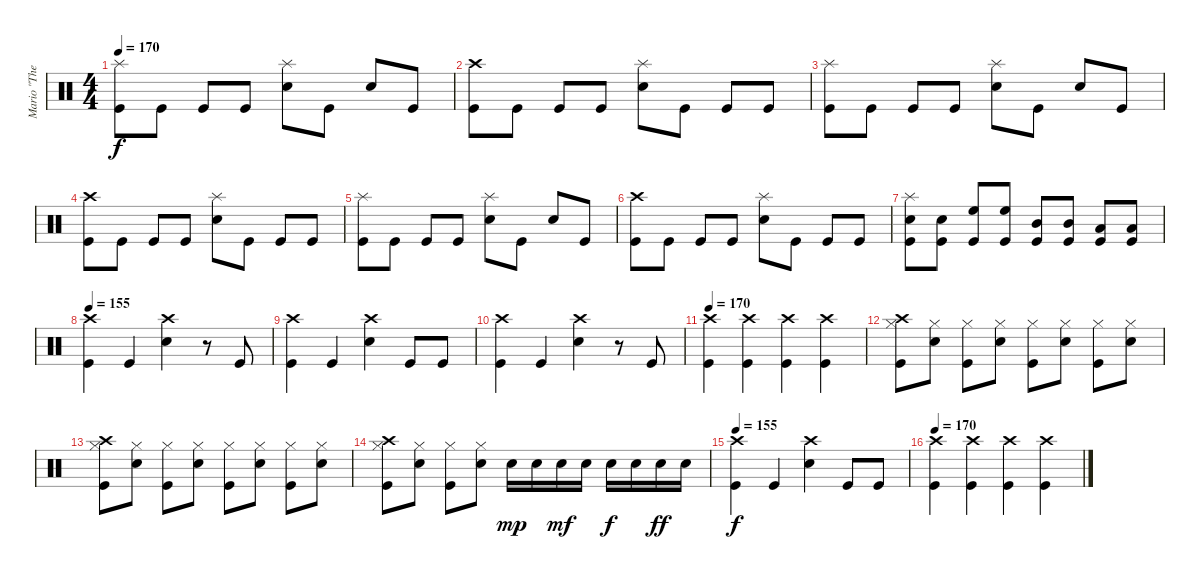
\track ("Mario \"The Dremmel\" Hirt" "Mario \"The") {instrument percussion}
\staff {score}
\articulation defaults
\ts (4 4)
\tempo 170
\clef neutral
\ks c
("Splash (hit)" "Kick (hit)").8{dy f} "Kick (hit)".8 "Kick (hit)".8 "Kick (hit)".8 ("Splash (hit)" "Electric Snare (hit)").8 "Kick (hit)".8 "Electric Snare (hit)".8 "Kick (hit)".8 |
("Crash high (hit)" "Kick (hit)").8 "Kick (hit)".8 "Kick (hit)".8 "Kick (hit)".8 ("Splash (hit)" "Electric Snare (hit)").8 "Kick (hit)".8 "Kick (hit)".8 "Kick (hit)".8 |
("Splash (hit)" "Kick (hit)").8 "Kick (hit)".8 "Kick (hit)".8 "Kick (hit)".8 ("Splash (hit)" "Electric Snare (hit)").8 "Kick (hit)".8 "Electric Snare (hit)".8 "Kick (hit)".8 |
("Crash high (hit)" "Kick (hit)").8 "Kick (hit)".8 "Kick (hit)".8 "Kick (hit)".8 ("Splash (hit)" "Electric Snare (hit)").8 "Kick (hit)".8 "Kick (hit)".8 "Kick (hit)".8 |
("Splash (hit)" "Kick (hit)").8 "Kick (hit)".8 "Kick (hit)".8 "Kick (hit)".8 ("Splash (hit)" "Electric Snare (hit)").8 "Kick (hit)".8 "Electric Snare (hit)".8 "Kick (hit)".8 |
("Crash high (hit)" "Kick (hit)").8 "Kick (hit)".8 "Kick (hit)".8 "Kick (hit)".8 ("Splash (hit)" "Electric Snare (hit)").8 "Kick (hit)".8 "Kick (hit)".8 "Kick (hit)".8 |
("Splash (hit)" "Electric Snare (hit)" "Kick (hit)").8 ("Electric Snare (hit)" "Kick (hit)").8 ("High Floor Tom (hit)" "Kick (hit)").8 ("High Floor Tom (hit)" "Kick (hit)").8 ("Mid Tom (hit)" "Kick (hit)").8 ("Mid Tom (hit)" "Kick (hit)").8 ("Low Tom (hit)" "Kick (hit)").8 ("Low Tom (hit)" "Kick (hit)").8 |
\tempo 155
("Crash high (hit)" "Kick (hit)").4 "Kick (hit)".4 ("Crash high (hit)" "Electric Snare (hit)").4 r.8 "Kick (hit)".8 |
("Crash high (hit)" "Kick (hit)").4 "Kick (hit)".4 ("Crash high (hit)" "Electric Snare (hit)").4 "Kick (hit)".8 "Kick (hit)".8 |
("Crash high (hit)" "Kick (hit)").4 "Kick (hit)".4 ("Crash high (hit)" "Electric Snare (hit)").4 r.8 "Kick (hit)".8 |
\tempo 170
("Crash high (hit)" "Kick (hit)").4 ("Crash high (hit)" "Kick (hit)").4 ("Crash high (hit)" "Kick (hit)").4 ("Crash high (hit)" "Kick (hit)").4 |
("Crash high (hit)" "Hi-Hat (closed)" "Kick (hit)").8 ("Hi-Hat (closed)" "Electric Snare (hit)").8 ("Hi-Hat (closed)" "Kick (hit)").8 ("Hi-Hat (closed)" "Electric Snare (hit)").8 ("Hi-Hat (closed)" "Kick (hit)").8 ("Hi-Hat (closed)" "Electric Snare (hit)").8 ("Hi-Hat (closed)" "Kick (hit)").8 ("Hi-Hat (closed)" "Electric Snare (hit)").8 |
("Crash high (hit)" "Hi-Hat (closed)" "Kick (hit)").8 ("Hi-Hat (closed)" "Electric Snare (hit)").8 ("Hi-Hat (closed)" "Kick (hit)").8 ("Hi-Hat (closed)" "Electric Snare (hit)").8 ("Hi-Hat (closed)" "Kick (hit)").8 ("Hi-Hat (closed)" "Electric Snare (hit)").8 ("Hi-Hat (closed)" "Kick (hit)").8 ("Hi-Hat (closed)" "Electric Snare (hit)").8 |
("Crash high (hit)" "Hi-Hat (closed)" "Kick (hit)").8 ("Hi-Hat (closed)" "Electric Snare (hit)").8 ("Hi-Hat (closed)" "Kick (hit)").8 ("Hi-Hat (closed)" "Electric Snare (hit)").8 "Electric Snare (hit)".16{dy mp} "Electric Snare (hit)".16 "Electric Snare (hit)".16{dy mf} "Electric Snare (hit)".16 "Electric Snare (hit)".16{dy f} "Electric Snare (hit)".16 "Electric Snare (hit)".16{dy ff} "Electric Snare (hit)".16 |
\tempo 155
("Crash high (hit)" "Kick (hit)").4{dy f} "Kick (hit)".4 ("Crash high (hit)" "Electric Snare (hit)").4 "Kick (hit)".8 "Kick (hit)".8 |
\tempo 170
("Crash high (hit)" "Kick (hit)").4 ("Crash high (hit)" "Kick (hit)").4 ("Crash high (hit)" "Kick (hit)").4 ("Crash high (hit)" "Kick (hit)").4
